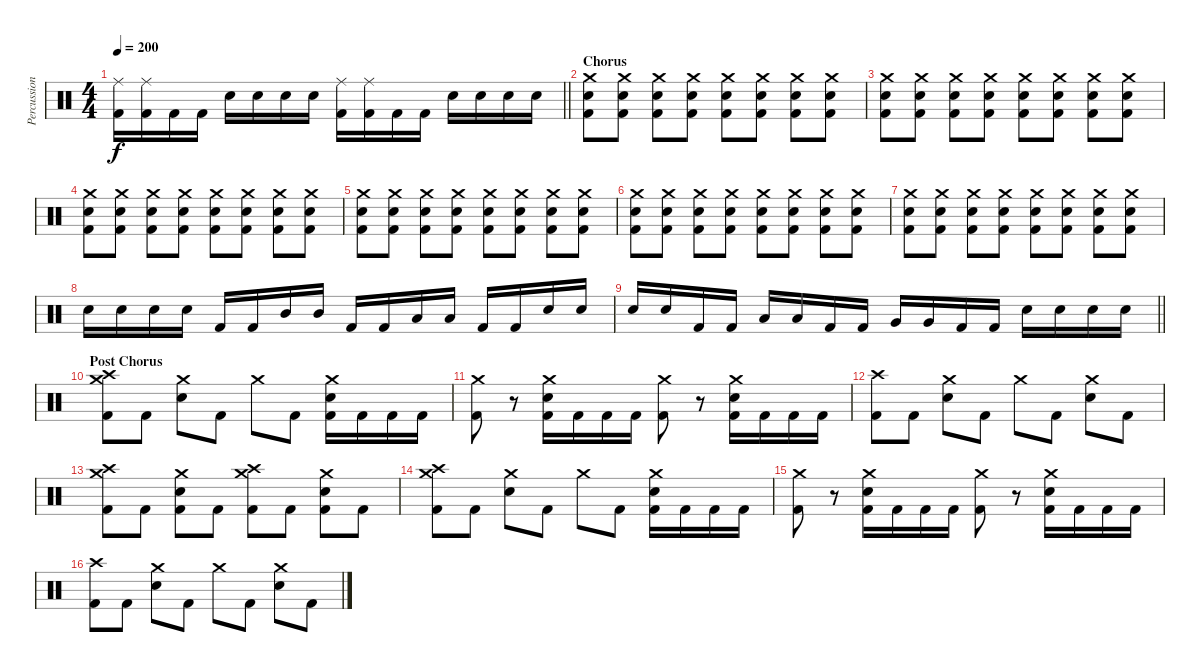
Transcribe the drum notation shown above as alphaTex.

\track ("Percussion" "Percussion") {instrument percussion}
\staff {score}
\articulation defaults
\ts (4 4)
\tempo 200
\clef neutral
\barLineRight lightlight
\ks c
("Ride (middle)" "Kick (hit) 2").16{dy f} ("Ride (middle)" "Kick (hit) 2").16 "Kick (hit) 2".16 "Kick (hit) 2".16 "Electric Snare (hit)".16 "Electric Snare (hit)".16 "Electric Snare (hit)".16 "Electric Snare (hit)".16 ("Ride (middle)" "Kick (hit) 2").16 ("Ride (middle)" "Kick (hit) 2").16 "Kick (hit) 2".16 "Kick (hit) 2".16 "Electric Snare (hit)".16 "Electric Snare (hit)".16 "Electric Snare (hit)".16 "Electric Snare (hit)".16 |
\section ("" "Chorus")
("Crash medium (hit)" "Electric Snare (hit)" "Kick (hit) 2").8 ("Crash medium (hit)" "Electric Snare (hit)" "Kick (hit) 2").8 ("Crash medium (hit)" "Electric Snare (hit)" "Kick (hit) 2").8 ("Crash medium (hit)" "Electric Snare (hit)" "Kick (hit) 2").8 ("Crash medium (hit)" "Electric Snare (hit)" "Kick (hit) 2").8 ("Crash medium (hit)" "Electric Snare (hit)" "Kick (hit) 2").8 ("Crash medium (hit)" "Electric Snare (hit)" "Kick (hit) 2").8 ("Crash medium (hit)" "Electric Snare (hit)" "Kick (hit) 2").8 |
("Crash medium (hit)" "Electric Snare (hit)" "Kick (hit) 2").8 ("Crash medium (hit)" "Electric Snare (hit)" "Kick (hit) 2").8 ("Crash medium (hit)" "Electric Snare (hit)" "Kick (hit) 2").8 ("Crash medium (hit)" "Electric Snare (hit)" "Kick (hit) 2").8 ("Crash medium (hit)" "Electric Snare (hit)" "Kick (hit) 2").8 ("Crash medium (hit)" "Electric Snare (hit)" "Kick (hit) 2").8 ("Crash medium (hit)" "Electric Snare (hit)" "Kick (hit) 2").8 ("Crash medium (hit)" "Electric Snare (hit)" "Kick (hit) 2").8 |
("Crash medium (hit)" "Electric Snare (hit)" "Kick (hit) 2").8 ("Crash medium (hit)" "Electric Snare (hit)" "Kick (hit) 2").8 ("Crash medium (hit)" "Electric Snare (hit)" "Kick (hit) 2").8 ("Crash medium (hit)" "Electric Snare (hit)" "Kick (hit) 2").8 ("Crash medium (hit)" "Electric Snare (hit)" "Kick (hit) 2").8 ("Crash medium (hit)" "Electric Snare (hit)" "Kick (hit) 2").8 ("Crash medium (hit)" "Electric Snare (hit)" "Kick (hit) 2").8 ("Crash medium (hit)" "Electric Snare (hit)" "Kick (hit) 2").8 |
("Crash medium (hit)" "Electric Snare (hit)" "Kick (hit) 2").8 ("Crash medium (hit)" "Electric Snare (hit)" "Kick (hit) 2").8 ("Crash medium (hit)" "Electric Snare (hit)" "Kick (hit) 2").8 ("Crash medium (hit)" "Electric Snare (hit)" "Kick (hit) 2").8 ("Crash medium (hit)" "Electric Snare (hit)" "Kick (hit) 2").8 ("Crash medium (hit)" "Electric Snare (hit)" "Kick (hit) 2").8 ("Crash medium (hit)" "Electric Snare (hit)" "Kick (hit) 2").8 ("Crash medium (hit)" "Electric Snare (hit)" "Kick (hit) 2").8 |
("Crash medium (hit)" "Electric Snare (hit)" "Kick (hit) 2").8 ("Crash medium (hit)" "Electric Snare (hit)" "Kick (hit) 2").8 ("Crash medium (hit)" "Electric Snare (hit)" "Kick (hit) 2").8 ("Crash medium (hit)" "Electric Snare (hit)" "Kick (hit) 2").8 ("Crash medium (hit)" "Electric Snare (hit)" "Kick (hit) 2").8 ("Crash medium (hit)" "Electric Snare (hit)" "Kick (hit) 2").8 ("Crash medium (hit)" "Electric Snare (hit)" "Kick (hit) 2").8 ("Crash medium (hit)" "Electric Snare (hit)" "Kick (hit) 2").8 |
("Crash medium (hit)" "Electric Snare (hit)" "Kick (hit) 2").8 ("Crash medium (hit)" "Electric Snare (hit)" "Kick (hit) 2").8 ("Crash medium (hit)" "Electric Snare (hit)" "Kick (hit) 2").8 ("Crash medium (hit)" "Electric Snare (hit)" "Kick (hit) 2").8 ("Crash medium (hit)" "Electric Snare (hit)" "Kick (hit) 2").8 ("Crash medium (hit)" "Electric Snare (hit)" "Kick (hit) 2").8 ("Crash medium (hit)" "Electric Snare (hit)" "Kick (hit) 2").8 ("Crash medium (hit)" "Electric Snare (hit)" "Kick (hit) 2").8 |
"Electric Snare (hit)".16 "Electric Snare (hit)".16 "Electric Snare (hit)".16 "Electric Snare (hit)".16 "Kick (hit) 2".16 "Kick (hit) 2".16 "Mid Tom (hit)".16 "Mid Tom (hit)".16 "Kick (hit) 2".16 "Kick (hit) 2".16 "Low Tom (hit)".16 "Low Tom (hit)".16 "Kick (hit) 2".16 "Kick (hit) 2".16 "Electric Snare (hit)".16 "Electric Snare (hit)".16 |
\barLineRight lightlight "Electric Snare (hit)".16 "Electric Snare (hit)".16 "Kick (hit) 2".16 "Kick (hit) 2".16 "Low Tom (hit)".16 "Low Tom (hit)".16 "Kick (hit) 2".16 "Kick (hit) 2".16 "Very Low Tom (hit)".16 "Very Low Tom (hit)".16 "Kick (hit) 2".16 "Kick (hit) 2".16 "Electric Snare (hit)".16 "Electric Snare (hit)".16 "Electric Snare (hit)".16 "Electric Snare (hit)".16
|
\section ("" "Post Chorus")
("Crash medium (hit)" "Crash high (hit)" "Kick (hit) 2").8 "Kick (hit) 2".8 ("Crash medium (hit)" "Electric Snare (hit)").8 "Kick (hit) 2".8 "Crash medium (hit)".8 "Kick (hit) 2".8 ("Crash medium (hit)" "Electric Snare (hit)" "Kick (hit) 2").16 "Kick (hit) 2".16 "Kick (hit) 2".16 "Kick (hit) 2".16 |
("Crash medium (hit)" "Kick (hit) 2").8 r.8 ("Crash medium (hit)" "Electric Snare (hit)" "Kick (hit) 2").16 "Kick (hit) 2".16 "Kick (hit) 2".16 "Kick (hit) 2".16 ("Crash medium (hit)" "Kick (hit) 2").8 r.8 ("Crash medium (hit)" "Electric Snare (hit)" "Kick (hit) 2").16 "Kick (hit) 2".16 "Kick (hit) 2".16 "Kick (hit) 2".16 |
("Crash high (hit)" "Kick (hit) 2").8 "Kick (hit) 2".8 ("Crash medium (hit)" "Electric Snare (hit)").8 "Kick (hit) 2".8 "Crash medium (hit)".8 "Kick (hit) 2".8 ("Crash medium (hit)" "Electric Snare (hit)").8 "Kick (hit) 2".8 |
("Crash medium (hit)" "Crash high (hit)" "Kick (hit) 2").8 "Kick (hit) 2".8 ("Crash medium (hit)" "Electric Snare (hit)" "Kick (hit) 2").8 "Kick (hit) 2".8 ("Crash medium (hit)" "Crash high (hit)" "Kick (hit) 2").8 "Kick (hit) 2".8 ("Crash medium (hit)" "Electric Snare (hit)" "Kick (hit) 2").8 "Kick (hit) 2".8 |
("Crash medium (hit)" "Crash high (hit)" "Kick (hit) 2").8 "Kick (hit) 2".8 ("Crash medium (hit)" "Electric Snare (hit)").8 "Kick (hit) 2".8 "Crash medium (hit)".8 "Kick (hit) 2".8 ("Crash medium (hit)" "Electric Snare (hit)" "Kick (hit) 2").16 "Kick (hit) 2".16 "Kick (hit) 2".16 "Kick (hit) 2".16 |
("Crash medium (hit)" "Kick (hit) 2").8 r.8 ("Crash medium (hit)" "Electric Snare (hit)" "Kick (hit) 2").16 "Kick (hit) 2".16 "Kick (hit) 2".16 "Kick (hit) 2".16 ("Crash medium (hit)" "Kick (hit) 2").8 r.8 ("Crash medium (hit)" "Electric Snare (hit)" "Kick (hit) 2").16 "Kick (hit) 2".16 "Kick (hit) 2".16 "Kick (hit) 2".16 |
("Crash high (hit)" "Kick (hit) 2").8 "Kick (hit) 2".8 ("Crash medium (hit)" "Electric Snare (hit)").8 "Kick (hit) 2".8 "Crash medium (hit)".8 "Kick (hit) 2".8 ("Crash medium (hit)" "Electric Snare (hit)").8 "Kick (hit) 2".8
